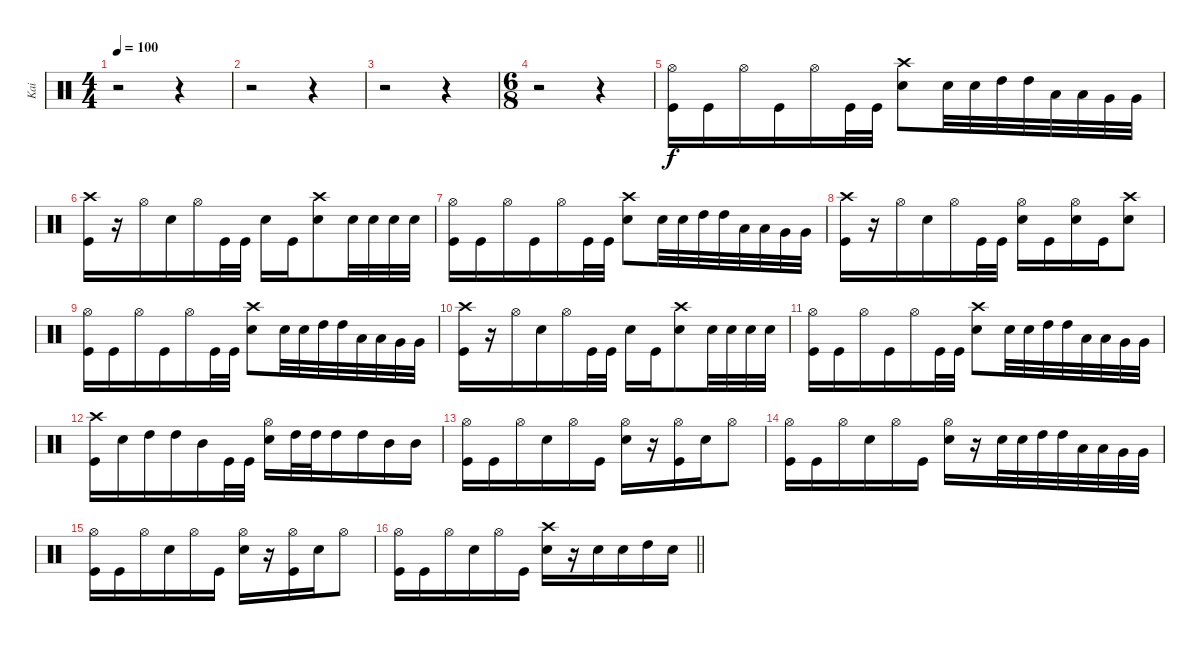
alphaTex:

\track ("Kai" "Kai") {instrument percussion}
\staff {score}
\articulation defaults
\ts (4 4)
\tempo 100
\clef neutral
\ks c
r.2{dy f} r.4 |
r.2 r.4 |
r.2 r.4 |
\ts (6 8)
r.2 r.4 |
("Hi-Hat (open)" "Kick (hit)").16 "Kick (hit)".16 "Hi-Hat (open)".16 "Kick (hit)".16 "Hi-Hat (open)".16 "Kick (hit)".32 "Kick (hit)".32 ("Crash high (hit)" "Snare (hit) 2").8 "Snare (hit) 2".32 "Snare (hit) 2".32 "High Tom (hit)".32 "High Tom (hit)".32 "Low Tom (hit)".32 "Low Tom (hit)".32 "Very Low Tom (hit)".32 "Very Low Tom (hit)".32 |
("Crash high (hit)" "Kick (hit)").16 r.16 "Hi-Hat (open)".16 "Snare (hit) 2".16 "Hi-Hat (open)".16 "Kick (hit)".32 "Kick (hit)".32 "Snare (hit) 2".16 "Kick (hit)".16 ("Crash high (hit)" "Snare (hit) 2").8 "Snare (hit) 2".32 "Snare (hit) 2".32 "Snare (hit) 2".32 "Snare (hit) 2".32 |
("Hi-Hat (open)" "Kick (hit)").16 "Kick (hit)".16 "Hi-Hat (open)".16 "Kick (hit)".16 "Hi-Hat (open)".16 "Kick (hit)".32 "Kick (hit)".32 ("Crash high (hit)" "Snare (hit) 2").8 "Snare (hit) 2".32 "Snare (hit) 2".32 "High Tom (hit)".32 "High Tom (hit)".32 "Low Tom (hit)".32 "Low Tom (hit)".32 "Very Low Tom (hit)".32 "Very Low Tom (hit)".32 |
("Crash high (hit)" "Kick (hit)").16 r.16 "Hi-Hat (open)".16 "Snare (hit) 2".16 "Hi-Hat (open)".16 "Kick (hit)".32 "Kick (hit)".32 ("Hi-Hat (open)" "Snare (hit) 2").16 "Kick (hit)".16 ("Hi-Hat (open)" "Snare (hit) 2").16 "Kick (hit)".16 ("Crash high (hit)" "Snare (hit) 2").8 |
("Hi-Hat (open)" "Kick (hit)").16 "Kick (hit)".16 "Hi-Hat (open)".16 "Kick (hit)".16 "Hi-Hat (open)".16 "Kick (hit)".32 "Kick (hit)".32 ("Crash high (hit)" "Snare (hit) 2").8 "Snare (hit) 2".32 "Snare (hit) 2".32 "High Tom (hit)".32 "High Tom (hit)".32 "Low Tom (hit)".32 "Low Tom (hit)".32 "Very Low Tom (hit)".32 "Very Low Tom (hit)".32 |
("Crash high (hit)" "Kick (hit)").16 r.16 "Hi-Hat (open)".16 "Snare (hit) 2".16 "Hi-Hat (open)".16 "Kick (hit)".32 "Kick (hit)".32 "Snare (hit) 2".16 "Kick (hit)".16 ("Crash high (hit)" "Snare (hit) 2").8 "Snare (hit) 2".32 "Snare (hit) 2".32 "Snare (hit) 2".32 "Snare (hit) 2".32 |
("Hi-Hat (open)" "Kick (hit)").16 "Kick (hit)".16 "Hi-Hat (open)".16 "Kick (hit)".16 "Hi-Hat (open)".16 "Kick (hit)".32 "Kick (hit)".32 ("Crash high (hit)" "Snare (hit) 2").8 "Snare (hit) 2".32 "Snare (hit) 2".32 "High Tom (hit)".32 "High Tom (hit)".32 "Low Tom (hit)".32 "Low Tom (hit)".32 "Very Low Tom (hit)".32 "Very Low Tom (hit)".32 |
("Crash high (hit)" "Kick (hit)").16 "Snare (hit) 2".16 "High Tom (hit)".16 "High Tom (hit)".16 "Mid Tom (hit)".16 "Kick (hit)".32 "Kick (hit)".32 ("Hi-Hat (open)" "Snare (hit) 2").16 "High Tom (hit)".32 "High Tom (hit)".32 "High Tom (hit)".16 "High Tom (hit)".16 "Mid Tom (hit)".16 "Mid Tom (hit)".16 |
("Hi-Hat (open)" "Kick (hit)").16 "Kick (hit)".16 "Hi-Hat (open)".16 "Snare (hit) 2".16 "Hi-Hat (open)".16 "Kick (hit)".16 ("Hi-Hat (open)" "Snare (hit) 2").16 r.16 ("Hi-Hat (open)" "Kick (hit)").16 "Snare (hit) 2".16 "Hi-Hat (open)".8 |
("Hi-Hat (open)" "Kick (hit)").16 "Kick (hit)".16 "Hi-Hat (open)".16 "Snare (hit) 2".16 "Hi-Hat (open)".16 "Kick (hit)".16 ("Hi-Hat (open)" "Snare (hit) 2").16 r.16 "Snare (hit) 2".32 "Snare (hit) 2".32 "High Tom (hit)".32 "High Tom (hit)".32 "Low Tom (hit)".32 "Low Tom (hit)".32 "Very Low Tom (hit)".32 "Very Low Tom (hit)".32 |
("Hi-Hat (open)" "Kick (hit)").16 "Kick (hit)".16 "Hi-Hat (open)".16 "Snare (hit) 2".16 "Hi-Hat (open)".16 "Kick (hit)".16 ("Hi-Hat (open)" "Snare (hit) 2").16 r.16 ("Hi-Hat (open)" "Kick (hit)").16 "Snare (hit) 2".16 "Hi-Hat (open)".8 |
\barLineRight lightlight
("Hi-Hat (open)" "Kick (hit)").16 "Kick (hit)".16 "Hi-Hat (open)".16 "Snare (hit) 2".16 "Hi-Hat (open)".16 "Kick (hit)".16 ("Crash high (hit)" "Snare (hit) 2").16 r.16 "Snare (hit) 2".16 "Snare (hit) 2".16 "High Tom (hit)".16 "Snare (hit) 2".16
